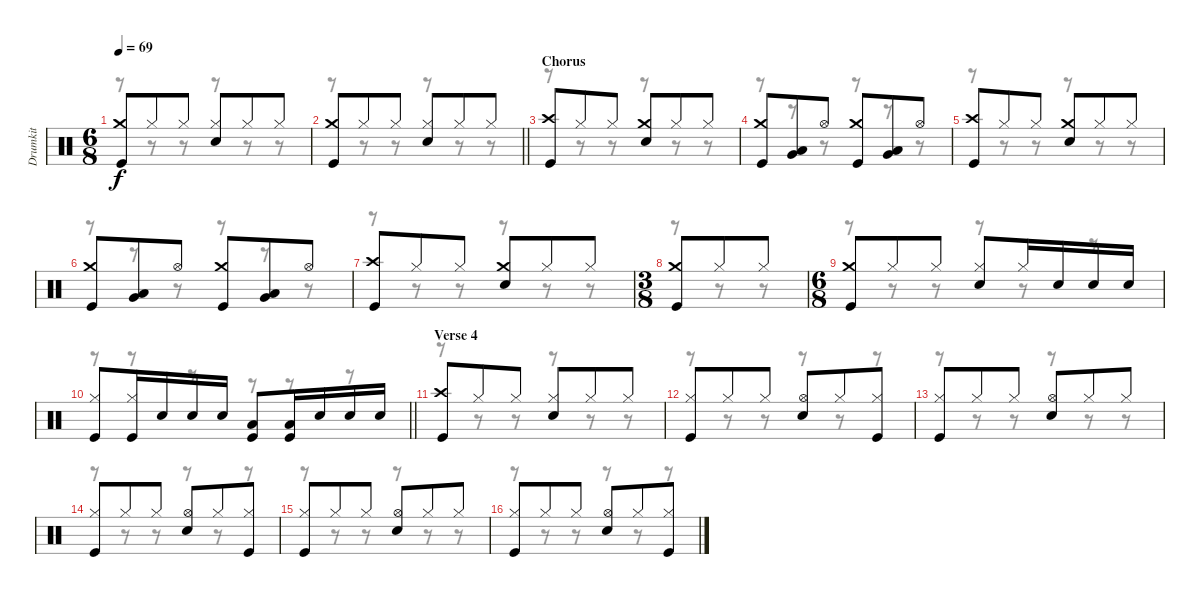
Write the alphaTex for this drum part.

\track ("Drumkit" "Drumkit") {instrument percussion}
\staff {score}
\articulation defaults
\voice
\ts (6 8)
\tempo 69
\clef neutral
\ks c
("Crash medium (hit)" "Kick (hit)").8{dy f} "Hi-Hat (closed)".8 "Hi-Hat (closed)".8 ("Hi-Hat (closed)" "Snare (hit) 2").8 "Hi-Hat (closed)".8 "Hi-Hat (closed)".8 |
\barLineRight lightlight
("Crash medium (hit)" "Kick (hit)").8 "Hi-Hat (closed)".8 "Hi-Hat (closed)".8 ("Hi-Hat (closed)" "Snare (hit) 2").8 "Hi-Hat (closed)".8 "Hi-Hat (closed)".8 |
\section ("" "Chorus")
("Crash high (hit)" "Kick (hit)").8 "Hi-Hat (closed)".8 "Hi-Hat (closed)".8 ("Crash medium (hit)" "Snare (hit) 2").8 "Hi-Hat (closed)".8 "Hi-Hat (closed)".8 |
("Crash medium (hit)" "Kick (hit)").8 ("Low Tom (hit)" "Very Low Tom (hit)").8 "Hi-Hat (open)".8 ("Crash medium (hit)" "Kick (hit)").8 ("Low Tom (hit)" "Very Low Tom (hit)").8 "Hi-Hat (open)".8 |
("Crash high (hit)" "Kick (hit)").8 "Hi-Hat (closed)".8 "Hi-Hat (closed)".8 ("Crash medium (hit)" "Snare (hit) 2").8 "Hi-Hat (closed)".8 "Hi-Hat (closed)".8 |
("Crash medium (hit)" "Kick (hit)").8 ("Low Tom (hit)" "Very Low Tom (hit)").8 "Hi-Hat (open)".8 ("Crash medium (hit)" "Kick (hit)").8 ("Low Tom (hit)" "Very Low Tom (hit)").8 "Hi-Hat (open)".8 |
("Crash high (hit)" "Kick (hit)").8 "Hi-Hat (closed)".8 "Hi-Hat (closed)".8 ("Crash medium (hit)" "Snare (hit) 2").8 "Hi-Hat (closed)".8 "Hi-Hat (closed)".8 |
\ts (3 8)
("Crash medium (hit)" "Kick (hit)").8 "Hi-Hat (closed)".8 "Hi-Hat (closed)".8 |
\ts (6 8)
("Crash medium (hit)" "Kick (hit)").8 "Hi-Hat (closed)".8 "Hi-Hat (closed)".8 ("Hi-Hat (closed)" "Snare (hit) 2").8 "Hi-Hat (closed)".16 "Snare (hit) 2".16 "Snare (hit) 2".16 "Snare (hit) 2".16 |
\barLineRight lightlight
("Hi-Hat (closed)" "Kick (hit)").8 ("Hi-Hat (closed)" "Kick (hit)").16 "Snare (hit) 2".16 "Snare (hit) 2".16 "Snare (hit) 2".16 ("Low Tom (hit)" "Kick (hit)").8 ("Low Tom (hit)" "Kick (hit)").16 "Snare (hit) 2".16 "Snare (hit) 2".16 "Snare (hit) 2".16 |
\section ("" "Verse 4")
("Crash high (hit)" "Kick (hit)").8 "Hi-Hat (closed)".8 "Hi-Hat (closed)".8 ("Hi-Hat (closed)" "Snare (hit) 2").8 "Hi-Hat (closed)".8 "Hi-Hat (closed)".8 |
("Hi-Hat (closed)" "Kick (hit)").8 "Hi-Hat (closed)".8 "Hi-Hat (closed)".8 ("Hi-Hat (open)" "Snare (hit) 2").8 "Hi-Hat (closed)".8 ("Hi-Hat (closed)" "Kick (hit)").8 |
("Hi-Hat (closed)" "Kick (hit)").8 "Hi-Hat (closed)".8 "Hi-Hat (closed)".8 ("Hi-Hat (open)" "Snare (hit) 2").8 "Hi-Hat (closed)".8 "Hi-Hat (closed)".8 |
("Hi-Hat (closed)" "Kick (hit)").8 "Hi-Hat (closed)".8 "Hi-Hat (closed)".8 ("Hi-Hat (open)" "Snare (hit) 2").8 "Hi-Hat (closed)".8 ("Hi-Hat (closed)" "Kick (hit)").8 |
("Hi-Hat (closed)" "Kick (hit)").8 "Hi-Hat (closed)".8 "Hi-Hat (closed)".8 ("Hi-Hat (open)" "Snare (hit) 2").8 "Hi-Hat (closed)".8 "Hi-Hat (closed)".8 |
("Hi-Hat (closed)" "Kick (hit)").8 "Hi-Hat (closed)".8 "Hi-Hat (closed)".8 ("Hi-Hat (open)" "Snare (hit) 2").8 "Hi-Hat (closed)".8 ("Hi-Hat (closed)" "Kick (hit)").8
\voice
\clef neutral
\ottava regular
\simile none
\ks c
r.8{dy f} r.8 r.8 r.8 r.8 r.8 |
\barLineRight lightlight
r.8 r.8 r.8 r.8 r.8 r.8 |
r.8 r.8 r.8 r.8 r.8 r.8 |
r.8 r.8 r.8 r.8 r.8 r.8 |
r.8 r.8 r.8 r.8 r.8 r.8 |
r.8 r.8 r.8 r.8 r.8 r.8 |
r.8 r.8 r.8 r.8 r.8 r.8 |
r.8 r.8 r.8 |
r.8 r.8 r.8 r.8 r.8 r.8 |
\barLineRight lightlight
r.8 r.8 r.8 r.8 r.8 r.8 |
r.8 r.8 r.8 r.8 r.8 r.8 |
r.8 r.8 r.8 r.8 r.8 r.8 |
r.8 r.8 r.8 r.8 r.8 r.8 |
r.8 r.8 r.8 r.8 r.8 r.8 |
r.8 r.8 r.8 r.8 r.8 r.8 |
r.8 r.8 r.8 r.8 r.8 r.8
